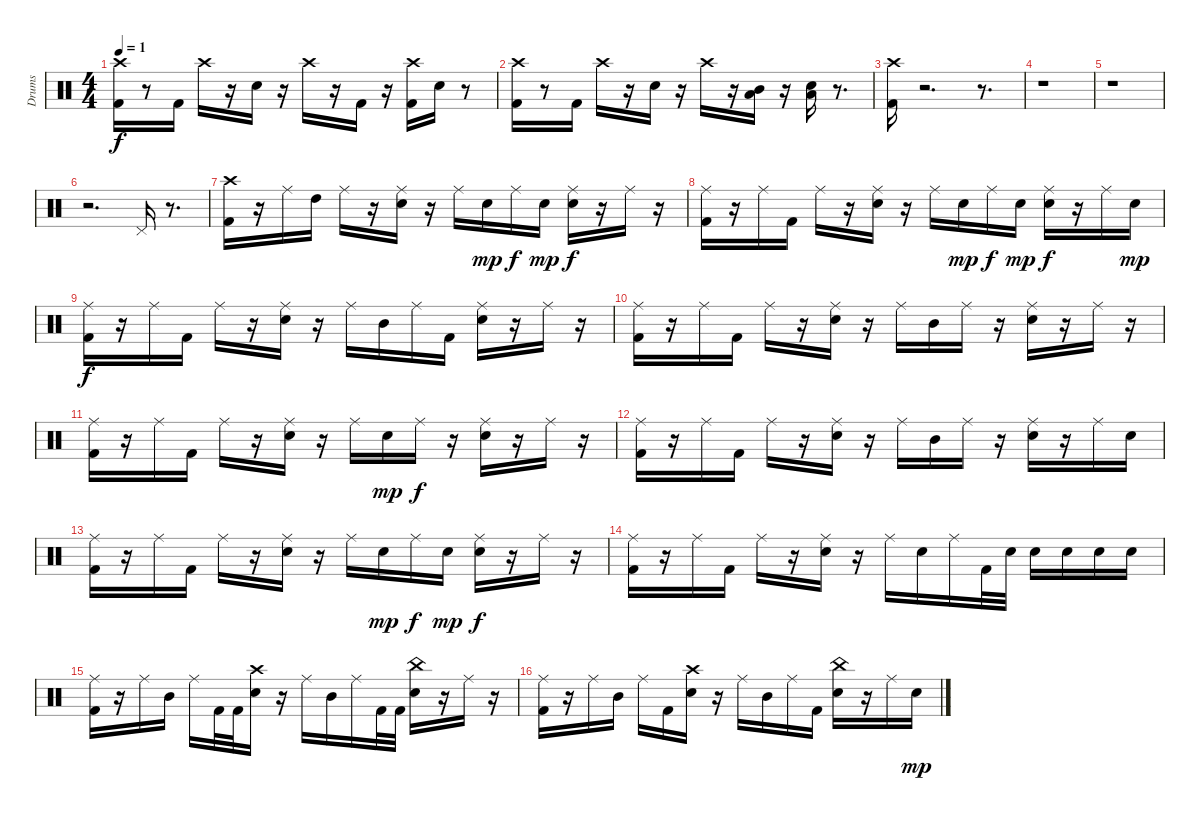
\track ("Drums" "Drums") {instrument percussion}
\staff {score}
\articulation defaults
\ts (4 4)
\tempo 1
\clef neutral
\ks c
("Kick (hit) 2" "Crash high (hit)").16{dy f} r.8 "Kick (hit) 2".16 "Crash high (hit)".16 r.16 "Snare (hit) 2".16 r.16 "Crash high (hit)".16 r.16 "Kick (hit) 2".16 r.16 ("Kick (hit) 2" "Crash high (hit)").16 "Snare (hit) 2".16 r.8 |
("Kick (hit) 2" "Crash high (hit)").16 r.8 "Kick (hit) 2".16 "Crash high (hit)".16 r.16 "Snare (hit) 2".16 r.16 "Crash high (hit)".16 r.16 ("Low Floor Tom (hit)" "Mid Tom (hit)").16 r.16 ("Snare (hit) 2" "Low Floor Tom (hit)").16 r.8{d} |
("Kick (hit) 2" "Crash high (hit)").16 r.2{d} r.8{d} |
r.1 |
r.1 |
r.2{d} "Pedal Hi-Hat (hit)".16 r.8{d} |
("Kick (hit) 2" "Crash high (hit)").16 r.16 "Ride (middle)".16 "High Tom (hit)".16 "Ride (middle)".16 r.16 ("Snare (hit) 2" "Ride (middle)").16 r.16 "Ride (middle)".16 "Snare (hit) 2".16{dy mp} "Ride (middle)".16{dy f} "Snare (hit) 2".16{dy mp} ("Snare (hit) 2" "Ride (middle)").16{dy f} r.16 "Ride (middle)".16 r.16 |
("Kick (hit) 2" "Ride (middle)").16 r.16 "Ride (middle)".16 "Kick (hit) 2".16 "Ride (middle)".16 r.16 ("Snare (hit) 2" "Ride (middle)").16 r.16 "Ride (middle)".16 "Snare (hit) 2".16{dy mp} "Ride (middle)".16{dy f} "Snare (hit) 2".16{dy mp} ("Snare (hit) 2" "Ride (middle)").16{dy f} r.16 "Ride (middle)".16 "Snare (hit) 2".16{dy mp} |
("Kick (hit) 2" "Ride (middle)").16{dy f} r.16 "Ride (middle)".16 "Kick (hit) 2".16 "Ride (middle)".16 r.16 ("Snare (hit) 2" "Ride (middle)").16 r.16 "Ride (middle)".16 "Mid Tom (hit)".16 "Ride (middle)".16 "Kick (hit) 2".16 ("Snare (hit) 2" "Ride (middle)").16 r.16 "Ride (middle)".16 r.16 |
("Kick (hit) 2" "Ride (middle)").16 r.16 "Ride (middle)".16 "Kick (hit) 2".16 "Ride (middle)".16 r.16 ("Snare (hit) 2" "Ride (middle)").16 r.16 "Ride (middle)".16 "Mid Tom (hit)".16 "Ride (middle)".16 r.16 ("Snare (hit) 2" "Ride (middle)").16 r.16 "Ride (middle)".16 r.16 |
("Kick (hit) 2" "Ride (middle)").16 r.16 "Ride (middle)".16 "Kick (hit) 2".16 "Ride (middle)".16 r.16 ("Snare (hit) 2" "Ride (middle)").16 r.16 "Ride (middle)".16 "Snare (hit) 2".16{dy mp} "Ride (middle)".16{dy f} r.16 ("Snare (hit) 2" "Ride (middle)").16 r.16 "Ride (middle)".16 r.16 |
("Kick (hit) 2" "Ride (middle)").16 r.16 "Ride (middle)".16 "Kick (hit) 2".16 "Ride (middle)".16 r.16 ("Snare (hit) 2" "Ride (middle)").16 r.16 "Ride (middle)".16 "Mid Tom (hit)".16 "Ride (middle)".16 r.16 ("Snare (hit) 2" "Ride (middle)").16 r.16 "Ride (middle)".16 "Snare (hit) 2".16 |
("Kick (hit) 2" "Ride (middle)").16 r.16 "Ride (middle)".16 "Kick (hit) 2".16 "Ride (middle)".16 r.16 ("Snare (hit) 2" "Ride (middle)").16 r.16 "Ride (middle)".16 "Snare (hit) 2".16{dy mp} "Ride (middle)".16{dy f} "Snare (hit) 2".16{dy mp} ("Snare (hit) 2" "Ride (middle)").16{dy f} r.16 "Ride (middle)".16 r.16 |
("Kick (hit) 2" "Ride (middle)").16 r.16 "Ride (middle)".16 "Kick (hit) 2".16 "Ride (middle)".16 r.16 ("Snare (hit) 2" "Ride (middle)").16 r.16 "Ride (middle)".16 "Snare (hit) 2".16 "Ride (middle)".16 "Kick (hit) 2".32 "Snare (hit) 2".32 "Snare (hit) 2".16 "Snare (hit) 2".16 "Snare (hit) 2".16 "Snare (hit) 2".16 |
("Kick (hit) 2" "Ride (middle)").16 r.16 "Ride (middle)".16 "Mid Tom (hit)".16 "Ride (middle)".16 "Kick (hit) 2".32 "Kick (hit) 2".32 ("Snare (hit) 2" "Crash high (hit)").16 r.16 "Ride (middle)".16 "Mid Tom (hit)".16 "Ride (middle)".16 "Kick (hit) 2".32 "Kick (hit) 2".32 ("Snare (hit) 2" "China (hit)").16 r.16 "Ride (middle)".16 r.16 |
("Kick (hit) 2" "Ride (middle)").16 r.16 "Ride (middle)".16 "Mid Tom (hit)".16 "Ride (middle)".16 "Kick (hit) 2".16 ("Snare (hit) 2" "Crash high (hit)").16 r.16 "Ride (middle)".16 "Mid Tom (hit)".16 "Ride (middle)".16 "Kick (hit) 2".16 ("Snare (hit) 2" "China (hit)").16 r.16 "Ride (middle)".16 "Snare (hit) 2".16{dy mp}
